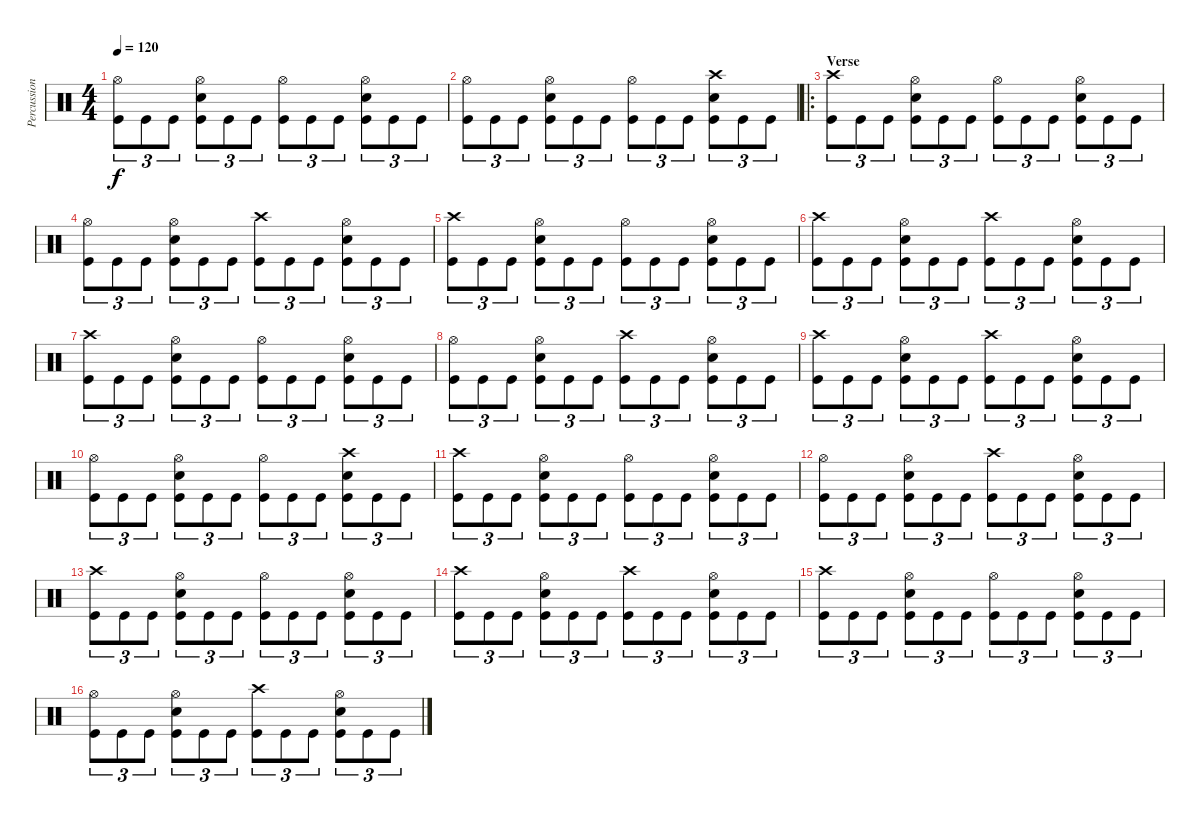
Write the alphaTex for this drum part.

\track ("Percussion" "Percussion") {instrument percussion}
\staff {score}
\articulation defaults
\ts (4 4)
\tempo 120
\clef neutral
\ks c
("Hi-Hat (open)" "Kick (hit)").8{tu (3 2) dy f} "Kick (hit)".8{tu (3 2)} "Kick (hit)".8{tu (3 2)} ("Hi-Hat (open)" "Snare (hit) 2" "Kick (hit)").8{tu (3 2)} "Kick (hit)".8{tu (3 2)} "Kick (hit)".8{tu (3 2)} ("Hi-Hat (open)" "Kick (hit)").8{tu (3 2)} "Kick (hit)".8{tu (3 2)} "Kick (hit)".8{tu (3 2)} ("Hi-Hat (open)" "Snare (hit) 2" "Kick (hit)").8{tu (3 2)} "Kick (hit)".8{tu (3 2)} "Kick (hit)".8{tu (3 2)} |
("Hi-Hat (open)" "Kick (hit)").8{tu (3 2)} "Kick (hit)".8{tu (3 2)} "Kick (hit)".8{tu (3 2)} ("Hi-Hat (open)" "Snare (hit) 2" "Kick (hit)").8{tu (3 2)} "Kick (hit)".8{tu (3 2)} "Kick (hit)".8{tu (3 2)} ("Hi-Hat (open)" "Kick (hit)").8{tu (3 2)} "Kick (hit)".8{tu (3 2)} "Kick (hit)".8{tu (3 2)} ("Crash high (hit)" "Snare (hit) 2" "Kick (hit)").8{tu (3 2)} "Kick (hit)".8{tu (3 2)} "Kick (hit)".8{tu (3 2)} |
\ro
\section ("" "Verse")
("Crash high (hit)" "Kick (hit)").8{tu (3 2)} "Kick (hit)".8{tu (3 2)} "Kick (hit)".8{tu (3 2)} ("Hi-Hat (open)" "Snare (hit) 2" "Kick (hit)").8{tu (3 2)} "Kick (hit)".8{tu (3 2)} "Kick (hit)".8{tu (3 2)} ("Hi-Hat (open)" "Kick (hit)").8{tu (3 2)} "Kick (hit)".8{tu (3 2)} "Kick (hit)".8{tu (3 2)} ("Hi-Hat (open)" "Snare (hit) 2" "Kick (hit)").8{tu (3 2)} "Kick (hit)".8{tu (3 2)} "Kick (hit)".8{tu (3 2)} |
("Hi-Hat (open)" "Kick (hit)").8{tu (3 2)} "Kick (hit)".8{tu (3 2)} "Kick (hit)".8{tu (3 2)} ("Hi-Hat (open)" "Snare (hit) 2" "Kick (hit)").8{tu (3 2)} "Kick (hit)".8{tu (3 2)} "Kick (hit)".8{tu (3 2)} ("Crash high (hit)" "Kick (hit)").8{tu (3 2)} "Kick (hit)".8{tu (3 2)} "Kick (hit)".8{tu (3 2)} ("Hi-Hat (open)" "Snare (hit) 2" "Kick (hit)").8{tu (3 2)} "Kick (hit)".8{tu (3 2)} "Kick (hit)".8{tu (3 2)} |
("Crash high (hit)" "Kick (hit)").8{tu (3 2)} "Kick (hit)".8{tu (3 2)} "Kick (hit)".8{tu (3 2)} ("Hi-Hat (open)" "Snare (hit) 2" "Kick (hit)").8{tu (3 2)} "Kick (hit)".8{tu (3 2)} "Kick (hit)".8{tu (3 2)} ("Hi-Hat (open)" "Kick (hit)").8{tu (3 2)} "Kick (hit)".8{tu (3 2)} "Kick (hit)".8{tu (3 2)} ("Hi-Hat (open)" "Snare (hit) 2" "Kick (hit)").8{tu (3 2)} "Kick (hit)".8{tu (3 2)} "Kick (hit)".8{tu (3 2)} |
("Crash high (hit)" "Kick (hit)").8{tu (3 2)} "Kick (hit)".8{tu (3 2)} "Kick (hit)".8{tu (3 2)} ("Hi-Hat (open)" "Snare (hit) 2" "Kick (hit)").8{tu (3 2)} "Kick (hit)".8{tu (3 2)} "Kick (hit)".8{tu (3 2)} ("Crash high (hit)" "Kick (hit)").8{tu (3 2)} "Kick (hit)".8{tu (3 2)} "Kick (hit)".8{tu (3 2)} ("Hi-Hat (open)" "Snare (hit) 2" "Kick (hit)").8{tu (3 2)} "Kick (hit)".8{tu (3 2)} "Kick (hit)".8{tu (3 2)} |
("Crash high (hit)" "Kick (hit)").8{tu (3 2)} "Kick (hit)".8{tu (3 2)} "Kick (hit)".8{tu (3 2)} ("Hi-Hat (open)" "Snare (hit) 2" "Kick (hit)").8{tu (3 2)} "Kick (hit)".8{tu (3 2)} "Kick (hit)".8{tu (3 2)} ("Hi-Hat (open)" "Kick (hit)").8{tu (3 2)} "Kick (hit)".8{tu (3 2)} "Kick (hit)".8{tu (3 2)} ("Hi-Hat (open)" "Snare (hit) 2" "Kick (hit)").8{tu (3 2)} "Kick (hit)".8{tu (3 2)} "Kick (hit)".8{tu (3 2)} |
("Hi-Hat (open)" "Kick (hit)").8{tu (3 2)} "Kick (hit)".8{tu (3 2)} "Kick (hit)".8{tu (3 2)} ("Hi-Hat (open)" "Snare (hit) 2" "Kick (hit)").8{tu (3 2)} "Kick (hit)".8{tu (3 2)} "Kick (hit)".8{tu (3 2)} ("Crash high (hit)" "Kick (hit)").8{tu (3 2)} "Kick (hit)".8{tu (3 2)} "Kick (hit)".8{tu (3 2)} ("Hi-Hat (open)" "Snare (hit) 2" "Kick (hit)").8{tu (3 2)} "Kick (hit)".8{tu (3 2)} "Kick (hit)".8{tu (3 2)} |
("Crash high (hit)" "Kick (hit)").8{tu (3 2)} "Kick (hit)".8{tu (3 2)} "Kick (hit)".8{tu (3 2)} ("Hi-Hat (open)" "Snare (hit) 2" "Kick (hit)").8{tu (3 2)} "Kick (hit)".8{tu (3 2)} "Kick (hit)".8{tu (3 2)} ("Crash high (hit)" "Kick (hit)").8{tu (3 2)} "Kick (hit)".8{tu (3 2)} "Kick (hit)".8{tu (3 2)} ("Hi-Hat (open)" "Snare (hit) 2" "Kick (hit)").8{tu (3 2)} "Kick (hit)".8{tu (3 2)} "Kick (hit)".8{tu (3 2)} |
("Hi-Hat (open)" "Kick (hit)").8{tu (3 2)} "Kick (hit)".8{tu (3 2)} "Kick (hit)".8{tu (3 2)} ("Hi-Hat (open)" "Snare (hit) 2" "Kick (hit)").8{tu (3 2)} "Kick (hit)".8{tu (3 2)} "Kick (hit)".8{tu (3 2)} ("Hi-Hat (open)" "Kick (hit)").8{tu (3 2)} "Kick (hit)".8{tu (3 2)} "Kick (hit)".8{tu (3 2)} ("Crash high (hit)" "Snare (hit) 2" "Kick (hit)").8{tu (3 2)} "Kick (hit)".8{tu (3 2)} "Kick (hit)".8{tu (3 2)} |
("Crash high (hit)" "Kick (hit)").8{tu (3 2)} "Kick (hit)".8{tu (3 2)} "Kick (hit)".8{tu (3 2)} ("Hi-Hat (open)" "Snare (hit) 2" "Kick (hit)").8{tu (3 2)} "Kick (hit)".8{tu (3 2)} "Kick (hit)".8{tu (3 2)} ("Hi-Hat (open)" "Kick (hit)").8{tu (3 2)} "Kick (hit)".8{tu (3 2)} "Kick (hit)".8{tu (3 2)} ("Hi-Hat (open)" "Snare (hit) 2" "Kick (hit)").8{tu (3 2)} "Kick (hit)".8{tu (3 2)} "Kick (hit)".8{tu (3 2)} |
("Hi-Hat (open)" "Kick (hit)").8{tu (3 2)} "Kick (hit)".8{tu (3 2)} "Kick (hit)".8{tu (3 2)} ("Hi-Hat (open)" "Snare (hit) 2" "Kick (hit)").8{tu (3 2)} "Kick (hit)".8{tu (3 2)} "Kick (hit)".8{tu (3 2)} ("Crash high (hit)" "Kick (hit)").8{tu (3 2)} "Kick (hit)".8{tu (3 2)} "Kick (hit)".8{tu (3 2)} ("Hi-Hat (open)" "Snare (hit) 2" "Kick (hit)").8{tu (3 2)} "Kick (hit)".8{tu (3 2)} "Kick (hit)".8{tu (3 2)} |
("Crash high (hit)" "Kick (hit)").8{tu (3 2)} "Kick (hit)".8{tu (3 2)} "Kick (hit)".8{tu (3 2)} ("Hi-Hat (open)" "Snare (hit) 2" "Kick (hit)").8{tu (3 2)} "Kick (hit)".8{tu (3 2)} "Kick (hit)".8{tu (3 2)} ("Hi-Hat (open)" "Kick (hit)").8{tu (3 2)} "Kick (hit)".8{tu (3 2)} "Kick (hit)".8{tu (3 2)} ("Hi-Hat (open)" "Snare (hit) 2" "Kick (hit)").8{tu (3 2)} "Kick (hit)".8{tu (3 2)} "Kick (hit)".8{tu (3 2)} |
("Crash high (hit)" "Kick (hit)").8{tu (3 2)} "Kick (hit)".8{tu (3 2)} "Kick (hit)".8{tu (3 2)} ("Hi-Hat (open)" "Snare (hit) 2" "Kick (hit)").8{tu (3 2)} "Kick (hit)".8{tu (3 2)} "Kick (hit)".8{tu (3 2)} ("Crash high (hit)" "Kick (hit)").8{tu (3 2)} "Kick (hit)".8{tu (3 2)} "Kick (hit)".8{tu (3 2)} ("Hi-Hat (open)" "Snare (hit) 2" "Kick (hit)").8{tu (3 2)} "Kick (hit)".8{tu (3 2)} "Kick (hit)".8{tu (3 2)} |
("Crash high (hit)" "Kick (hit)").8{tu (3 2)} "Kick (hit)".8{tu (3 2)} "Kick (hit)".8{tu (3 2)} ("Hi-Hat (open)" "Snare (hit) 2" "Kick (hit)").8{tu (3 2)} "Kick (hit)".8{tu (3 2)} "Kick (hit)".8{tu (3 2)} ("Hi-Hat (open)" "Kick (hit)").8{tu (3 2)} "Kick (hit)".8{tu (3 2)} "Kick (hit)".8{tu (3 2)} ("Hi-Hat (open)" "Snare (hit) 2" "Kick (hit)").8{tu (3 2)} "Kick (hit)".8{tu (3 2)} "Kick (hit)".8{tu (3 2)} |
("Hi-Hat (open)" "Kick (hit)").8{tu (3 2)} "Kick (hit)".8{tu (3 2)} "Kick (hit)".8{tu (3 2)} ("Hi-Hat (open)" "Snare (hit) 2" "Kick (hit)").8{tu (3 2)} "Kick (hit)".8{tu (3 2)} "Kick (hit)".8{tu (3 2)} ("Crash high (hit)" "Kick (hit)").8{tu (3 2)} "Kick (hit)".8{tu (3 2)} "Kick (hit)".8{tu (3 2)} ("Hi-Hat (open)" "Snare (hit) 2" "Kick (hit)").8{tu (3 2)} "Kick (hit)".8{tu (3 2)} "Kick (hit)".8{tu (3 2)}
